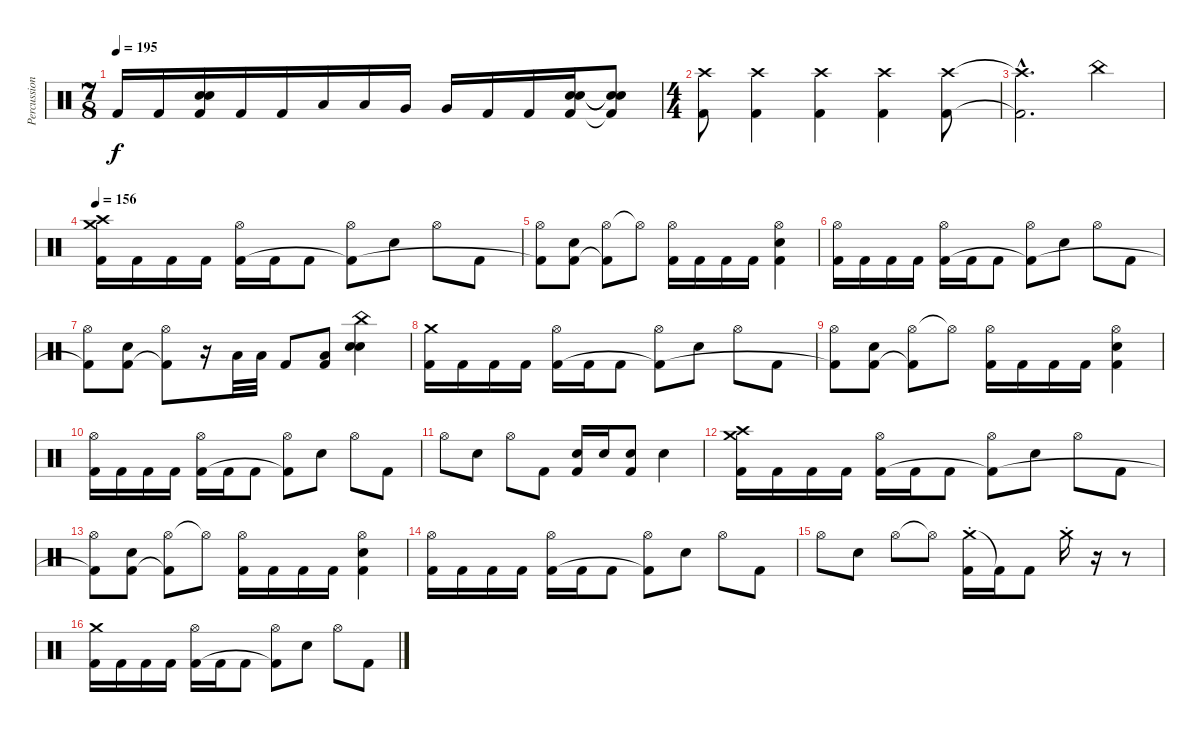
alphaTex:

\track ("Percussion" "Percussion") {instrument percussion}
\staff {score}
\articulation defaults
\ts (7 8)
\tempo 195
\clef neutral
\ks c "Kick (hit) 2".16{dy f} "Kick (hit) 2".16
("Electric Snare (hit)" "Electric Snare (hit)" "Kick (hit) 2").16 "Kick (hit) 2".16 "Kick (hit) 2".16 "Low Tom (hit)".16 "Low Tom (hit)".16 "Very Low Tom (hit)".16 "Very Low Tom (hit)".16 "Kick (hit) 2".16 "Kick (hit) 2".16 ("Electric Snare (hit)" "Electric Snare (hit)" "Kick (hit) 2").16 ("Electric Snare (hit)"{t} "Electric Snare (hit)"{t} "Kick (hit) 2"{t}).8 |
\ts (4 4)
("Crash high (hit)" "Kick (hit) 2").8 ("Crash high (hit)" "Kick (hit) 2").4 ("Crash high (hit)" "Kick (hit) 2").4 ("Crash high (hit)" "Kick (hit) 2").4 ("Crash high (hit)" "Kick (hit) 2").8 |
("Crash high (hit)"{hac t} "Kick (hit) 2"{hac t}).2{d} "China (hit)".4 |
\tempo 156
("Crash medium (hit)" "Crash high (hit)" "Kick (hit) 2").16 "Kick (hit) 2".16 "Kick (hit) 2".16 "Kick (hit) 2".16 ("Hi-Hat (open)" "Kick (hit) 2").16 "Kick (hit) 2".16 "Kick (hit) 2".8 ("Hi-Hat (open)" "Kick (hit) 2"{t}).8 "Electric Snare (hit)".8 "Hi-Hat (open)".8 "Kick (hit) 2".8 |
("Hi-Hat (open)" "Kick (hit) 2"{t}).8 ("Electric Snare (hit)" "Kick (hit) 2").8 ("Hi-Hat (open)" "Kick (hit) 2"{t}).8 "Hi-Hat (open)"{t}.8 ("Hi-Hat (open)" "Kick (hit) 2").16 "Kick (hit) 2".16 "Kick (hit) 2".16 "Kick (hit) 2".16 ("Hi-Hat (open)" "Electric Snare (hit)" "Kick (hit) 2").4 |
("Hi-Hat (open)" "Kick (hit) 2").16 "Kick (hit) 2".16 "Kick (hit) 2".16 "Kick (hit) 2".16 ("Hi-Hat (open)" "Kick (hit) 2").16 "Kick (hit) 2".16 "Kick (hit) 2".8 ("Hi-Hat (open)" "Kick (hit) 2"{t}).8 "Electric Snare (hit)".8 "Hi-Hat (open)".8 "Kick (hit) 2".8 |
("Hi-Hat (open)" "Kick (hit) 2"{t}).8 ("Electric Snare (hit)" "Kick (hit) 2").8 ("Hi-Hat (open)" "Kick (hit) 2"{t}).8 r.16 "Low Tom (hit)".32 "Low Tom (hit)".32 "Kick (hit) 2".8 ("Low Tom (hit)" "Kick (hit) 2").8 ("China (hit)" "Electric Snare (hit)" "Electric Snare (hit)").4 |
("Crash medium (hit)" "Kick (hit) 2").16 "Kick (hit) 2".16 "Kick (hit) 2".16 "Kick (hit) 2".16 ("Hi-Hat (open)" "Kick (hit) 2").16 "Kick (hit) 2".16 "Kick (hit) 2".8 ("Hi-Hat (open)" "Kick (hit) 2"{t}).8 "Electric Snare (hit)".8 "Hi-Hat (open)".8 "Kick (hit) 2".8 |
("Hi-Hat (open)" "Kick (hit) 2"{t}).8 ("Electric Snare (hit)" "Kick (hit) 2").8 ("Hi-Hat (open)" "Kick (hit) 2"{t}).8 "Hi-Hat (open)"{t}.8 ("Hi-Hat (open)" "Kick (hit) 2").16 "Kick (hit) 2".16 "Kick (hit) 2".16 "Kick (hit) 2".16 ("Hi-Hat (open)" "Electric Snare (hit)" "Kick (hit) 2").4 |
("Hi-Hat (open)" "Kick (hit) 2").16 "Kick (hit) 2".16 "Kick (hit) 2".16 "Kick (hit) 2".16 ("Hi-Hat (open)" "Kick (hit) 2").16 "Kick (hit) 2".16 "Kick (hit) 2".8 ("Hi-Hat (open)" "Kick (hit) 2"{t}).8 "Electric Snare (hit)".8 "Hi-Hat (open)".8 "Kick (hit) 2".8 |
"Hi-Hat (open)".8 "Electric Snare (hit)".8 "Hi-Hat (open)".8 "Kick (hit) 2".8 ("Electric Snare (hit)" "Kick (hit) 2").16 "Electric Snare (hit)".16 ("Electric Snare (hit)" "Kick (hit) 2").8 "Electric Snare (hit)".4 |
("Crash medium (hit)" "Crash high (hit)" "Kick (hit) 2").16 "Kick (hit) 2".16 "Kick (hit) 2".16 "Kick (hit) 2".16 ("Hi-Hat (open)" "Kick (hit) 2").16 "Kick (hit) 2".16 "Kick (hit) 2".8 ("Hi-Hat (open)" "Kick (hit) 2"{t}).8 "Electric Snare (hit)".8 "Hi-Hat (open)".8 "Kick (hit) 2".8 |
("Hi-Hat (open)" "Kick (hit) 2"{t}).8 ("Electric Snare (hit)" "Kick (hit) 2").8 ("Hi-Hat (open)" "Kick (hit) 2"{t}).8 "Hi-Hat (open)"{t}.8 ("Hi-Hat (open)" "Kick (hit) 2").16 "Kick (hit) 2".16 "Kick (hit) 2".16 "Kick (hit) 2".16 ("Hi-Hat (open)" "Electric Snare (hit)" "Kick (hit) 2").4 |
("Hi-Hat (open)" "Kick (hit) 2").16 "Kick (hit) 2".16 "Kick (hit) 2".16 "Kick (hit) 2".16 ("Hi-Hat (open)" "Kick (hit) 2").16 "Kick (hit) 2".16 "Kick (hit) 2".8 ("Hi-Hat (open)" "Kick (hit) 2"{t}).8 "Electric Snare (hit)".8 "Hi-Hat (open)".8 "Kick (hit) 2".8 |
"Hi-Hat (open)".8 "Electric Snare (hit)".8 "Hi-Hat (open)".8 "Hi-Hat (open)"{t}.8 ("Crash medium (hit)"{st} "Kick (hit) 2").16 "Kick (hit) 2"{t}.16 "Kick (hit) 2".8 "Crash medium (hit)"{st}.16 r.16 r.8 |
("Crash medium (hit)" "Kick (hit) 2").16 "Kick (hit) 2".16 "Kick (hit) 2".16 "Kick (hit) 2".16 ("Hi-Hat (open)" "Kick (hit) 2").16 "Kick (hit) 2".16 "Kick (hit) 2".8 ("Hi-Hat (open)" "Kick (hit) 2"{t}).8 "Electric Snare (hit)".8 "Hi-Hat (open)".8 "Kick (hit) 2".8
